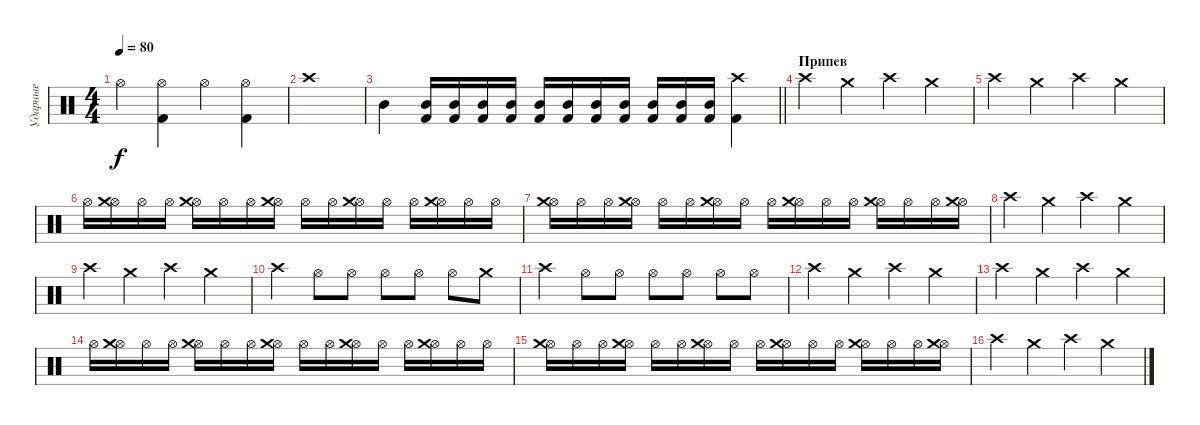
\track ("Ударные" "Ударные") {instrument percussion}
\staff {score}
\articulation defaults
\ts (4 4)
\tempo 80
\clef neutral
\ks c "Hi-Hat (open)".4{dy f}
("Hi-Hat (open)" "Kick (hit) 2").4 "Hi-Hat (open)".4 ("Hi-Hat (open)" "Kick (hit) 2").4 |
"Crash high (hit)".1 |
\barLineRight lightlight "Mid Tom (hit)".4
("Mid Tom (hit)" "Kick (hit) 2").16 ("Mid Tom (hit)" "Kick (hit) 2").16 ("Mid Tom (hit)" "Kick (hit) 2").16 ("Mid Tom (hit)" "Kick (hit) 2").16 ("Mid Tom (hit)" "Kick (hit) 2").16 ("Mid Tom (hit)" "Kick (hit) 2").16 ("Mid Tom (hit)" "Kick (hit) 2").16 ("Mid Tom (hit)" "Kick (hit) 2").16 ("Mid Tom (hit)" "Kick (hit) 2").16 ("Mid Tom (hit)" "Kick (hit) 2").16 ("Mid Tom (hit)" "Kick (hit) 2").16 ("Crash high (hit)" "Kick (hit) 2").4 |
\section ("" "Припев")
"Crash high (hit)".4 "Crash medium (hit)".4 "Crash high (hit)".4 "Crash medium (hit)".4 |
"Crash high (hit)".4 "Crash medium (hit)".4 "Crash high (hit)".4 "Crash medium (hit)".4 |
"Hi-Hat (open)".16 ("Hi-Hat (open)" "Crash medium (hit)").16 "Hi-Hat (open)".16 "Hi-Hat (open)".16 ("Hi-Hat (open)" "Crash medium (hit)").16 "Hi-Hat (open)".16 "Hi-Hat (open)".16 ("Hi-Hat (open)" "Crash medium (hit)").16 "Hi-Hat (open)".16 "Hi-Hat (open)".16 ("Hi-Hat (open)" "Crash medium (hit)").16 "Hi-Hat (open)".16 "Hi-Hat (open)".16 ("Hi-Hat (open)" "Crash medium (hit)").16 "Hi-Hat (open)".16 "Hi-Hat (open)".16 |
("Hi-Hat (open)" "Crash medium (hit)").16 "Hi-Hat (open)".16 "Hi-Hat (open)".16 ("Hi-Hat (open)" "Crash medium (hit)").16 "Hi-Hat (open)".16 "Hi-Hat (open)".16 ("Hi-Hat (open)" "Crash medium (hit)").16 "Hi-Hat (open)".16 "Hi-Hat (open)".16 ("Hi-Hat (open)" "Crash medium (hit)").16 "Hi-Hat (open)".16 "Hi-Hat (open)".16 ("Hi-Hat (open)" "Crash medium (hit)").16 "Hi-Hat (open)".16 "Hi-Hat (open)".16 ("Hi-Hat (open)" "Crash medium (hit)").16 |
"Crash high (hit)".4 "Crash medium (hit)".4 "Crash high (hit)".4 "Crash medium (hit)".4 |
"Crash high (hit)".4 "Crash medium (hit)".4 "Crash high (hit)".4 "Crash medium (hit)".4 |
"Crash high (hit)".4 "Hi-Hat (open)".8 "Hi-Hat (open)".8 "Hi-Hat (open)".8 "Hi-Hat (open)".8 "Hi-Hat (open)".8 "Crash medium (hit)".8 |
"Crash high (hit)".4 "Hi-Hat (open)".8 "Hi-Hat (open)".8 "Hi-Hat (open)".8 "Hi-Hat (open)".8 "Hi-Hat (open)".8 "Hi-Hat (open)".8 |
"Crash high (hit)".4 "Crash medium (hit)".4 "Crash high (hit)".4 "Crash medium (hit)".4 |
"Crash high (hit)".4 "Crash medium (hit)".4 "Crash high (hit)".4 "Crash medium (hit)".4 |
"Hi-Hat (open)".16 ("Hi-Hat (open)" "Crash medium (hit)").16 "Hi-Hat (open)".16 "Hi-Hat (open)".16 ("Hi-Hat (open)" "Crash medium (hit)").16 "Hi-Hat (open)".16 "Hi-Hat (open)".16 ("Hi-Hat (open)" "Crash medium (hit)").16 "Hi-Hat (open)".16 "Hi-Hat (open)".16 ("Hi-Hat (open)" "Crash medium (hit)").16 "Hi-Hat (open)".16 "Hi-Hat (open)".16 ("Hi-Hat (open)" "Crash medium (hit)").16 "Hi-Hat (open)".16 "Hi-Hat (open)".16 |
("Hi-Hat (open)" "Crash medium (hit)").16 "Hi-Hat (open)".16 "Hi-Hat (open)".16 ("Hi-Hat (open)" "Crash medium (hit)").16 "Hi-Hat (open)".16 "Hi-Hat (open)".16 ("Hi-Hat (open)" "Crash medium (hit)").16 "Hi-Hat (open)".16 "Hi-Hat (open)".16 ("Hi-Hat (open)" "Crash medium (hit)").16 "Hi-Hat (open)".16 "Hi-Hat (open)".16 ("Hi-Hat (open)" "Crash medium (hit)").16 "Hi-Hat (open)".16 "Hi-Hat (open)".16 ("Hi-Hat (open)" "Crash medium (hit)").16 |
"Crash high (hit)".4 "Crash medium (hit)".4 "Crash high (hit)".4 "Crash medium (hit)".4
